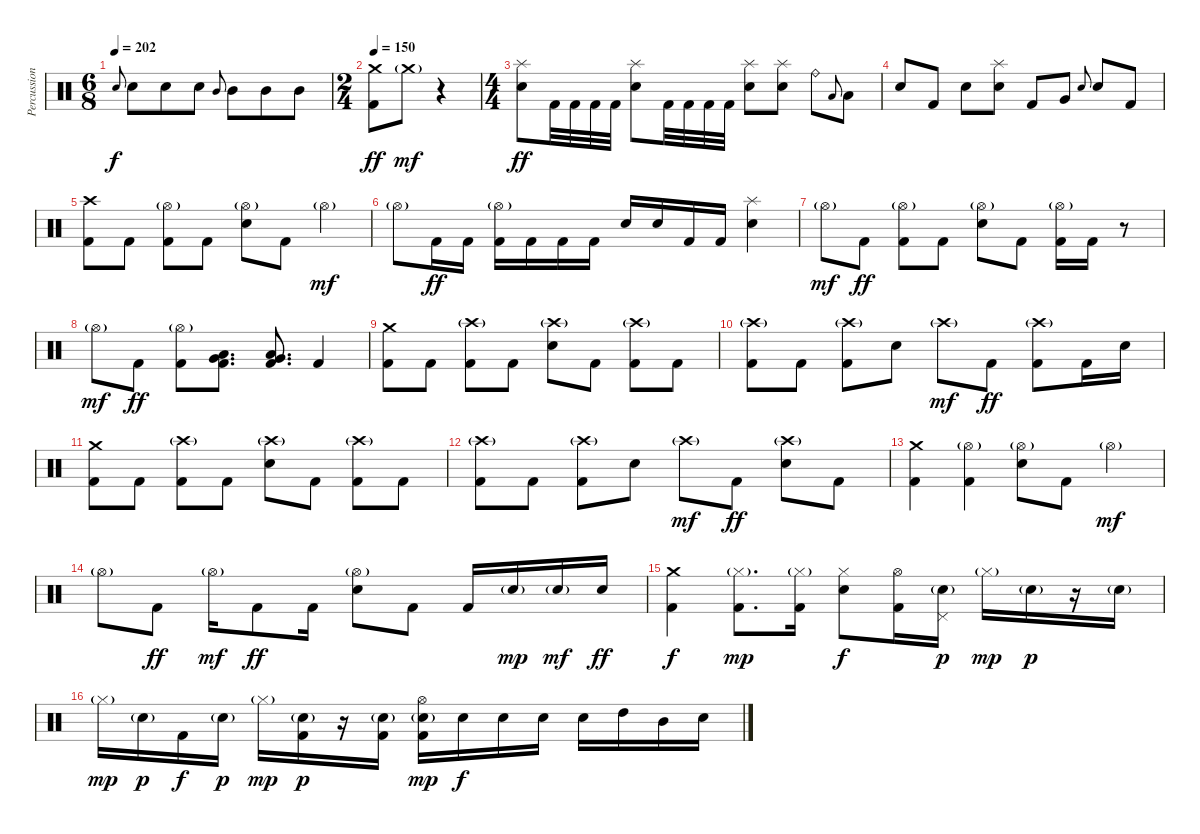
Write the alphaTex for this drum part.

\track ("Percussion" "Percussion") {instrument percussion}
\staff {score}
\articulation defaults
\ts (6 8)
\tempo 202
\clef neutral
\ks c "Electric Snare (hit)".8{gr onbeat dy f} "Electric Snare (hit)".8 "Electric Snare (hit)".8 "Electric Snare (hit)".8 "Mid Tom (hit)".8{gr onbeat} "Mid Tom (hit)".8 "Mid Tom (hit)".8 "Mid Tom (hit)".8
|
\ts (2 4)
\tempo 150
("Crash medium (hit)" "Kick (hit) 2").8{dy ff} "Crash medium (hit)"{g}.8{dy mf} r.4 |
\ts (4 4)
("Splash (hit)" "Electric Snare (hit)").8{dy ff} "Kick (hit) 2".32 "Kick (hit) 2".32 "Kick (hit) 2".32 "Kick (hit) 2".32 ("Splash (hit)" "Electric Snare (hit)").8 "Kick (hit) 2".32 "Kick (hit) 2".32 "Kick (hit) 2".32 "Kick (hit) 2".32 ("Splash (hit)" "Electric Snare (hit)").8 ("Splash (hit)" "Electric Snare (hit)").8 "Ride (bell)".8 "Low Tom (hit)".8{gr onbeat} "Low Tom (hit)".8 |
"Electric Snare (hit)".8 "Kick (hit) 2".8 "Electric Snare (hit)".8 ("Splash (hit)" "Electric Snare (hit)").8 "Kick (hit) 2".8 "Very Low Tom (hit)".8 "Electric Snare (hit)".8{gr onbeat} "Electric Snare (hit)".8 "Kick (hit) 2".8 |
("Crash high (hit)" "Kick (hit) 2").8 "Kick (hit) 2".8 ("Hi-Hat (open)"{g} "Kick (hit) 2").8 "Kick (hit) 2".8 ("Hi-Hat (open)"{g} "Electric Snare (hit)").8 "Kick (hit) 2".8 "Hi-Hat (open)"{g}.4{dy mf} |
"Hi-Hat (open)"{g}.8 "Kick (hit) 2".16{dy ff} "Kick (hit) 2".16 ("Hi-Hat (open)"{g} "Kick (hit) 2").16 "Kick (hit) 2".16 "Kick (hit) 2".16 "Kick (hit) 2".16 "Electric Snare (hit)".16 "Electric Snare (hit)".16 "Kick (hit) 2".16 "Kick (hit) 2".16 ("Splash (hit)" "Electric Snare (hit)").4 |
"Hi-Hat (open)"{g}.8{dy mf} "Kick (hit) 2".8{dy ff} ("Hi-Hat (open)"{g} "Kick (hit) 2").8 "Kick (hit) 2".8 ("Hi-Hat (open)"{g} "Electric Snare (hit)").8 "Kick (hit) 2".8 ("Hi-Hat (open)"{g} "Kick (hit) 2").16 "Kick (hit) 2".16 r.8 |
"Hi-Hat (open)"{g}.8{dy mf} "Kick (hit) 2".8{dy ff} ("Hi-Hat (open)"{g} "Kick (hit) 2").8 ("Low Floor Tom (hit)" "Very Low Tom (hit)" "Kick (hit) 2").8{d} ("Low Floor Tom (hit)" "Very Low Tom (hit)" "Kick (hit) 2").8{d} "Kick (hit) 2".4 |
("Crash medium (hit)" "Kick (hit) 2").8 "Kick (hit) 2".8 ("Crash high (hit)"{g} "Kick (hit) 2").8 "Kick (hit) 2".8 ("Crash high (hit)"{g} "Electric Snare (hit)").8 "Kick (hit) 2".8 ("Crash high (hit)"{g} "Kick (hit) 2").8 "Kick (hit) 2".8 |
("Crash high (hit)"{g} "Kick (hit) 2").8 "Kick (hit) 2".8 ("Crash high (hit)"{g} "Kick (hit) 2").8 "Electric Snare (hit)".8 "Crash high (hit)"{g}.8{dy mf} "Kick (hit) 2".8{dy ff} ("Crash high (hit)"{g} "Kick (hit) 2").8 "Kick (hit) 2".16 "Electric Snare (hit)".16 |
("Crash medium (hit)" "Kick (hit) 2").8 "Kick (hit) 2".8 ("Crash high (hit)"{g} "Kick (hit) 2").8 "Kick (hit) 2".8 ("Crash high (hit)"{g} "Electric Snare (hit)").8 "Kick (hit) 2".8 ("Crash high (hit)"{g} "Kick (hit) 2").8 "Kick (hit) 2".8 |
("Crash high (hit)"{g} "Kick (hit) 2").8 "Kick (hit) 2".8 ("Crash high (hit)"{g} "Kick (hit) 2").8 "Electric Snare (hit)".8 "Crash high (hit)"{g}.8{dy mf} "Kick (hit) 2".8{dy ff} ("Crash high (hit)"{g} "Electric Snare (hit)").8 "Kick (hit) 2".8 |
("Crash medium (hit)" "Kick (hit) 2").4 ("Hi-Hat (open)"{g} "Kick (hit) 2").4 ("Hi-Hat (open)"{g} "Electric Snare (hit)").8 "Kick (hit) 2".8 "Hi-Hat (open)"{g}.4{dy mf} |
"Hi-Hat (open)"{g}.8 "Kick (hit) 2".8{dy ff} "Hi-Hat (open)"{g}.16{dy mf} "Kick (hit) 2".8{dy ff} "Kick (hit) 2".16 ("Hi-Hat (open)"{g} "Electric Snare (hit)").8 "Kick (hit) 2".8 "Kick (hit) 2".16 "Electric Snare (hit)"{g}.16{dy mp} "Electric Snare (hit)"{g}.16{dy mf} "Electric Snare (hit)".16{dy ff} |
("Crash medium (hit)" "Kick (hit) 2").4{dy f} ("Hi-Hat (closed)"{g} "Kick (hit) 2").8{d dy mp} ("Hi-Hat (closed)"{g} "Kick (hit) 2").16 ("Hi-Hat (closed)" "Electric Snare (hit)").8{dy f} ("Hi-Hat (open)" "Kick (hit) 2").16 ("Pedal Hi-Hat (hit)" "Electric Snare (hit)"{g}).16{dy p} "Hi-Hat (closed)"{g}.16{dy mp} "Electric Snare (hit)"{g}.16{dy p} r.16 "Electric Snare (hit)"{g}.16 |
"Hi-Hat (closed)"{g}.16{dy mp} "Electric Snare (hit)"{g}.16{dy p} "Kick (hit) 2".16{dy f} "Electric Snare (hit)"{g}.16{dy p} "Hi-Hat (closed)"{g}.16{dy mp} ("Electric Snare (hit)"{g} "Kick (hit) 2").16{dy p} r.16 ("Electric Snare (hit)"{g} "Kick (hit) 2").16 ("Hi-Hat (open)" "Electric Snare (hit)"{g} "Kick (hit) 2").16{dy mp} "Electric Snare (hit)".16{dy f} "Electric Snare (hit)".16 "Electric Snare (hit)".16 "Electric Snare (hit)".16 "High Tom (hit)".16 "Mid Tom (hit)".16 "Electric Snare (hit)".16
